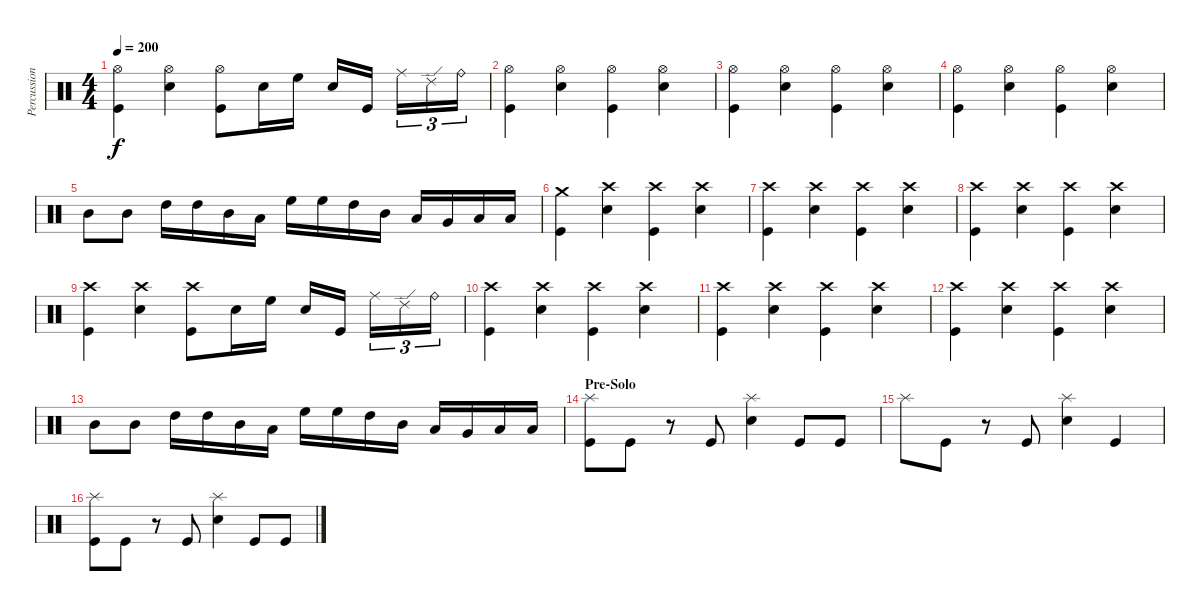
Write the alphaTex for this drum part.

\track ("Percussion" "Percussion") {instrument percussion}
\staff {score}
\articulation defaults
\ts (4 4)
\tempo 200
\clef neutral
\ks c
("Hi-Hat (open)" "Kick (hit)").4{dy f} ("Hi-Hat (open)" "Electric Snare (hit)").4 ("Hi-Hat (open)" "Kick (hit)").8 "Electric Snare (hit)".16 "High Floor Tom (hit)".16 "Electric Snare (hit)".16 "Kick (hit)".16 "Ride (middle)".16{tu (3 2)} "Ride (edge) 2".16{tu (3 2)} "Ride (bell)".16{tu (3 2)} |
("Hi-Hat (open)" "Kick (hit)").4 ("Hi-Hat (open)" "Electric Snare (hit)").4 ("Hi-Hat (open)" "Kick (hit)").4 ("Hi-Hat (open)" "Electric Snare (hit)").4 |
("Hi-Hat (open)" "Kick (hit)").4 ("Hi-Hat (open)" "Electric Snare (hit)").4 ("Hi-Hat (open)" "Kick (hit)").4 ("Hi-Hat (open)" "Electric Snare (hit)").4 |
("Hi-Hat (open)" "Kick (hit)").4 ("Hi-Hat (open)" "Electric Snare (hit)").4 ("Hi-Hat (open)" "Kick (hit)").4 ("Hi-Hat (open)" "Electric Snare (hit)").4 |
"Mid Tom (hit)".8 "Mid Tom (hit)".8 "High Tom (hit)".16 "High Tom (hit)".16 "Mid Tom (hit)".16 "Low Tom (hit)".16 "High Floor Tom (hit)".16 "High Floor Tom (hit)".16 "High Tom (hit)".16 "Mid Tom (hit)".16 "Low Tom (hit)".16 "Very Low Tom (hit)".16 "Low Floor Tom (hit)".16 "Low Floor Tom (hit)".16 |
("Crash medium (hit)" "Kick (hit)").4 ("Crash high (hit)" "Electric Snare (hit)").4 ("Crash high (hit)" "Kick (hit)").4 ("Crash high (hit)" "Electric Snare (hit)").4 |
("Crash high (hit)" "Kick (hit)").4 ("Crash high (hit)" "Electric Snare (hit)").4 ("Crash high (hit)" "Kick (hit)").4 ("Crash high (hit)" "Electric Snare (hit)").4 |
("Crash high (hit)" "Kick (hit)").4 ("Crash high (hit)" "Electric Snare (hit)").4 ("Crash high (hit)" "Kick (hit)").4 ("Crash high (hit)" "Electric Snare (hit)").4 |
("Crash high (hit)" "Kick (hit)").4 ("Crash high (hit)" "Electric Snare (hit)").4 ("Crash high (hit)" "Kick (hit)").8 "Electric Snare (hit)".16 "High Floor Tom (hit)".16 "Electric Snare (hit)".16 "Kick (hit)".16 "Ride (middle)".16{tu (3 2)} "Ride (edge) 2".16{tu (3 2)} "Ride (bell)".16{tu (3 2)} |
("Crash high (hit)" "Kick (hit)").4 ("Crash high (hit)" "Electric Snare (hit)").4 ("Crash high (hit)" "Kick (hit)").4 ("Crash high (hit)" "Electric Snare (hit)").4 |
("Crash high (hit)" "Kick (hit)").4 ("Crash high (hit)" "Electric Snare (hit)").4 ("Crash high (hit)" "Kick (hit)").4 ("Crash high (hit)" "Electric Snare (hit)").4 |
("Crash high (hit)" "Kick (hit)").4 ("Crash high (hit)" "Electric Snare (hit)").4 ("Crash high (hit)" "Kick (hit)").4 ("Crash high (hit)" "Electric Snare (hit)").4 |
"Mid Tom (hit)".8 "Mid Tom (hit)".8 "High Tom (hit)".16 "High Tom (hit)".16 "Mid Tom (hit)".16 "Low Tom (hit)".16 "High Floor Tom (hit)".16 "High Floor Tom (hit)".16 "High Tom (hit)".16 "Mid Tom (hit)".16 "Low Tom (hit)".16 "Very Low Tom (hit)".16 "Low Floor Tom (hit)".16 "Low Floor Tom (hit)".16 |
\section ("" "Pre-Solo")
("Splash (hit)" "Kick (hit)").8 "Kick (hit)".8 r.8 "Kick (hit)".8 ("Splash (hit)" "Electric Snare (hit)").4 "Kick (hit)".8 "Kick (hit)".8 |
"Splash (hit)".8 "Kick (hit)".8 r.8 "Kick (hit)".8 ("Splash (hit)" "Electric Snare (hit)").4 "Kick (hit)".4 |
("Splash (hit)" "Kick (hit)").8 "Kick (hit)".8 r.8 "Kick (hit)".8 ("Splash (hit)" "Electric Snare (hit)").4 "Kick (hit)".8 "Kick (hit)".8
